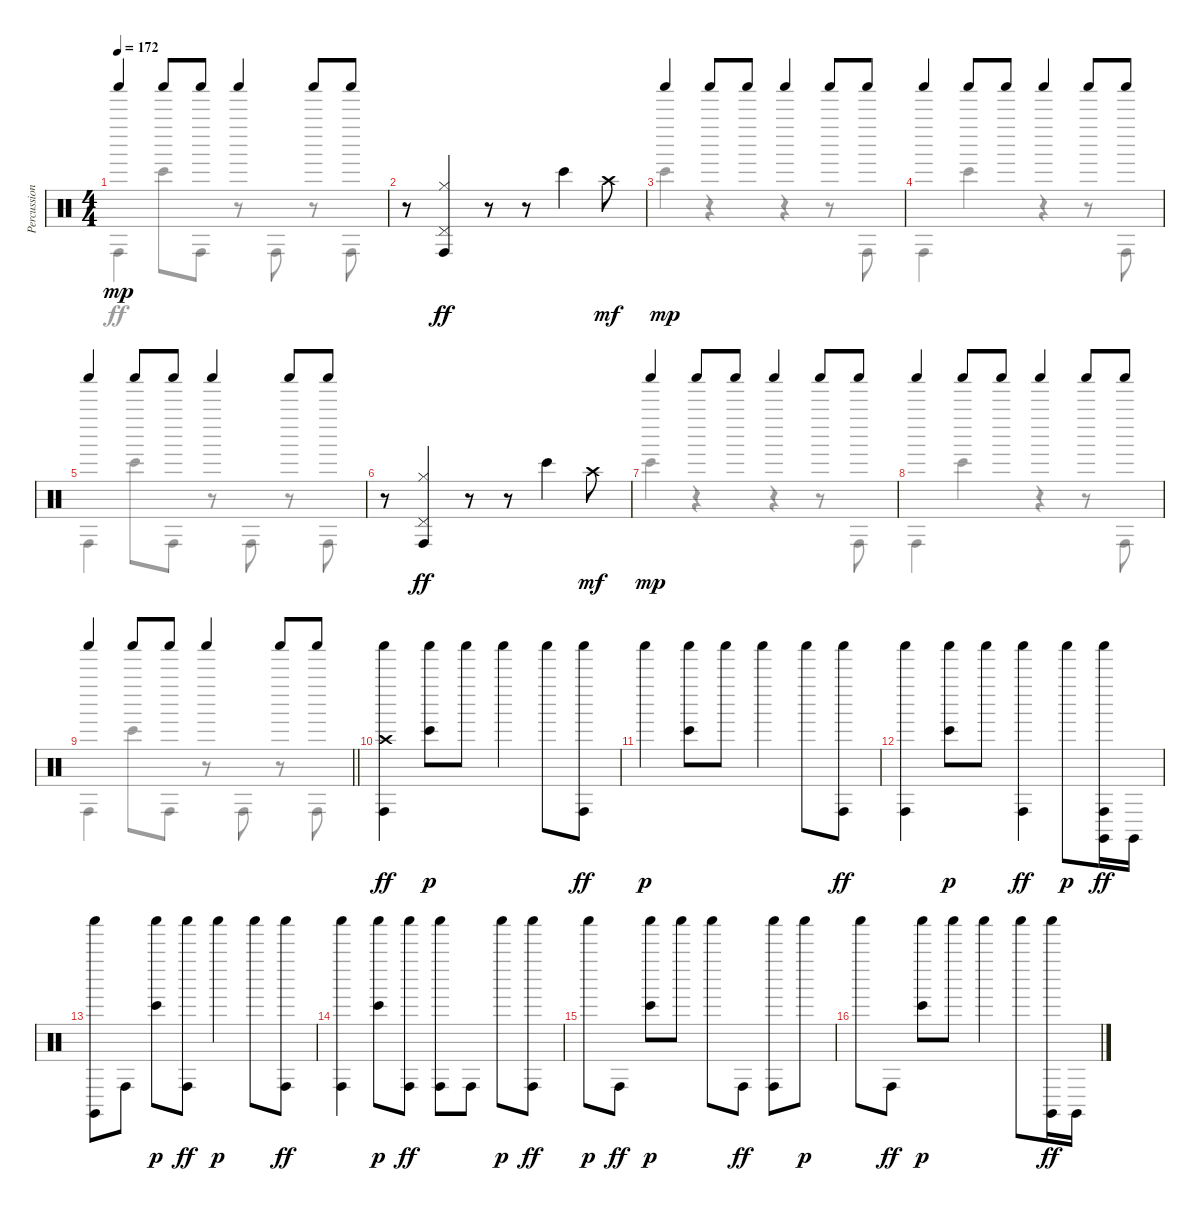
\track ("Percussion" "Percussion") {instrument percussion}
\staff {score}
\articulation defaults
\voice
\ts (4 4)
\tempo 172
\clef neutral
\ks c "Shaker (hit)".4{dy mp} "Shaker (hit)".8 "Shaker (hit)".8 "Shaker (hit)".4 "Shaker (hit)".8 "Shaker (hit)".8
|
r.8 ("Conga high (hit)" "Pedal Hi-Hat (hit)" "Hi-Hat (closed)").4{dy ff} r.8 r.8 "Bongo High (hit)".4 "Crash high (hit)".8{dy mf} |
"Shaker (hit)".4{dy mp} "Shaker (hit)".8 "Shaker (hit)".8 "Shaker (hit)".4 "Shaker (hit)".8 "Shaker (hit)".8 |
"Shaker (hit)".4 "Shaker (hit)".8 "Shaker (hit)".8 "Shaker (hit)".4 "Shaker (hit)".8 "Shaker (hit)".8 |
"Shaker (hit)".4 "Shaker (hit)".8 "Shaker (hit)".8 "Shaker (hit)".4 "Shaker (hit)".8 "Shaker (hit)".8 |
r.8 ("Conga high (hit)" "Pedal Hi-Hat (hit)" "Hi-Hat (closed)").4{dy ff} r.8 r.8 "Bongo High (hit)".4 "Crash high (hit)".8{dy mf} |
"Shaker (hit)".4{dy mp} "Shaker (hit)".8 "Shaker (hit)".8 "Shaker (hit)".4 "Shaker (hit)".8 "Shaker (hit)".8 |
"Shaker (hit)".4 "Shaker (hit)".8 "Shaker (hit)".8 "Shaker (hit)".4 "Shaker (hit)".8 "Shaker (hit)".8 |
\barLineRight lightlight "Shaker (hit)".4 "Shaker (hit)".8 "Shaker (hit)".8 "Shaker (hit)".4 "Shaker (hit)".8 "Shaker (hit)".8
|
("Shaker (hit)" "Crash high (hit)" "Conga high (hit)").4{dy ff} ("Shaker (hit)" "Bongo High (hit)").8{dy p} "Shaker (hit)".8 "Shaker (hit)".4 "Shaker (hit)".8 ("Shaker (hit)" "Conga high (hit)").8{dy ff} |
"Shaker (hit)".4{dy p} ("Shaker (hit)" "Bongo High (hit)").8 "Shaker (hit)".8 "Shaker (hit)".4 "Shaker (hit)".8 ("Shaker (hit)" "Conga high (hit)").8{dy ff} |
("Shaker (hit)" "Conga high (hit)").4 ("Shaker (hit)" "Bongo High (hit)").8{dy p} "Shaker (hit)".8 ("Shaker (hit)" "Conga high (hit)").4{dy ff} "Shaker (hit)".8{dy p} ("Shaker (hit)" "Conga high (hit)" "Claves (hit)").16{dy ff} "Claves (hit)".16 |
("Shaker (hit)" "Claves (hit)").8 "Conga high (hit)".8 ("Shaker (hit)" "Bongo High (hit)").8{dy p} ("Shaker (hit)" "Conga high (hit)").8{dy ff} "Shaker (hit)".4{dy p} "Shaker (hit)".8 ("Shaker (hit)" "Conga high (hit)").8{dy ff} |
("Shaker (hit)" "Conga high (hit)").4 ("Shaker (hit)" "Bongo High (hit)").8{dy p} ("Shaker (hit)" "Conga high (hit)").8{dy ff} ("Shaker (hit)" "Conga high (hit)").8 "Conga high (hit)".8 "Shaker (hit)".8{dy p} ("Shaker (hit)" "Conga high (hit)").8{dy ff} |
"Shaker (hit)".8{dy p} "Conga high (hit)".8{dy ff} ("Shaker (hit)" "Bongo High (hit)").8{dy p} "Shaker (hit)".8 "Shaker (hit)".8 "Conga high (hit)".8{dy ff} ("Shaker (hit)" "Conga high (hit)").8 "Shaker (hit)".8{dy p} |
"Shaker (hit)".8 "Conga high (hit)".8{dy ff} ("Shaker (hit)" "Bongo High (hit)").8{dy p} "Shaker (hit)".8 "Shaker (hit)".4 "Shaker (hit)".8 ("Shaker (hit)" "Claves (hit)").16{dy ff} "Claves (hit)".16
\voice
\clef neutral
\ottava regular
\simile none
\ks c "Conga high (hit)".4{dy ff} "Bongo High (hit)".8 "Conga high (hit)".8
r.8 "Conga high (hit)".8 r.8 "Conga high (hit)".8 |
|
"Bongo High (hit)".4 r.4 r.4 r.8 "Conga high (hit)".8 |
"Conga high (hit)".4 "Bongo High (hit)".4 r.4 r.8 "Conga high (hit)".8 |
"Conga high (hit)".4 "Bongo High (hit)".8 "Conga high (hit)".8 r.8 "Conga high (hit)".8 r.8 "Conga high (hit)".8 |
|
"Bongo High (hit)".4 r.4 r.4 r.8 "Conga high (hit)".8 |
"Conga high (hit)".4 "Bongo High (hit)".4 r.4 r.8 "Conga high (hit)".8 |
\barLineRight lightlight "Conga high (hit)".4 "Bongo High (hit)".8 "Conga high (hit)".8
r.8 "Conga high (hit)".8 r.8 "Conga high (hit)".8 |
|
|
|
|
|
|
